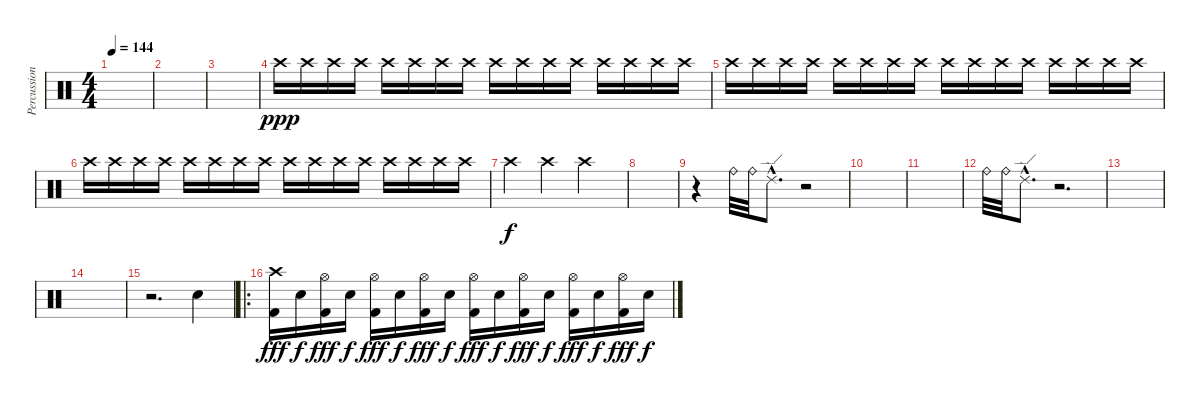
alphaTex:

\track ("Percussion" "Percussion") {instrument percussion}
\staff {score}
\articulation defaults
\ts (4 4)
\tempo 144
\clef neutral
\ks c
|
|
|
"Crash high (hit)".16{dy ppp volume 11} "Crash high (hit)".16 "Crash high (hit)".16 "Crash high (hit)".16 "Crash high (hit)".16 "Crash high (hit)".16 "Crash high (hit)".16 "Crash high (hit)".16 "Crash high (hit)".16 "Crash high (hit)".16 "Crash high (hit)".16 "Crash high (hit)".16 "Crash high (hit)".16 "Crash high (hit)".16 "Crash high (hit)".16 "Crash high (hit)".16 |
"Crash high (hit)".16 "Crash high (hit)".16 "Crash high (hit)".16 "Crash high (hit)".16 "Crash high (hit)".16 "Crash high (hit)".16 "Crash high (hit)".16 "Crash high (hit)".16 "Crash high (hit)".16 "Crash high (hit)".16 "Crash high (hit)".16 "Crash high (hit)".16 "Crash high (hit)".16 "Crash high (hit)".16 "Crash high (hit)".16 "Crash high (hit)".16 |
"Crash high (hit)".16 "Crash high (hit)".16 "Crash high (hit)".16 "Crash high (hit)".16 "Crash high (hit)".16 "Crash high (hit)".16 "Crash high (hit)".16 "Crash high (hit)".16 "Crash high (hit)".16 "Crash high (hit)".16 "Crash high (hit)".16 "Crash high (hit)".16 "Crash high (hit)".16 "Crash high (hit)".16 "Crash high (hit)".16 "Crash high (hit)".16 |
"Crash high (hit)".4{dy f} "Crash high (hit)".4 "Crash high (hit)".2 |
|
r.4 "Ride (bell)".32 "Ride (bell)".32 "Ride (edge) 2"{hac}.8{d} r.2 |
|
|
"Ride (bell)".32 "Ride (bell)".32 "Ride (edge) 2"{hac}.8{d} r.2{d} |
|
|
r.2{d} "Snare (hit) 2".4{volume 16} |
\ro
("Crash high (hit)" "Kick (hit) 2").16{dy fff} "Snare (hit) 2".16{dy f} ("Hi-Hat (open)" "Kick (hit) 2").16{dy fff} "Snare (hit) 2".16{dy f} ("Hi-Hat (open)" "Kick (hit) 2").16{dy fff} "Snare (hit) 2".16{dy f} ("Hi-Hat (open)" "Kick (hit) 2").16{dy fff} "Snare (hit) 2".16{dy f} ("Hi-Hat (open)" "Kick (hit) 2").16{dy fff} "Snare (hit) 2".16{dy f} ("Hi-Hat (open)" "Kick (hit) 2").16{dy fff} "Snare (hit) 2".16{dy f} ("Hi-Hat (open)" "Kick (hit) 2").16{dy fff} "Snare (hit) 2".16{dy f} ("Hi-Hat (open)" "Kick (hit) 2").16{dy fff} "Snare (hit) 2".16{dy f}
